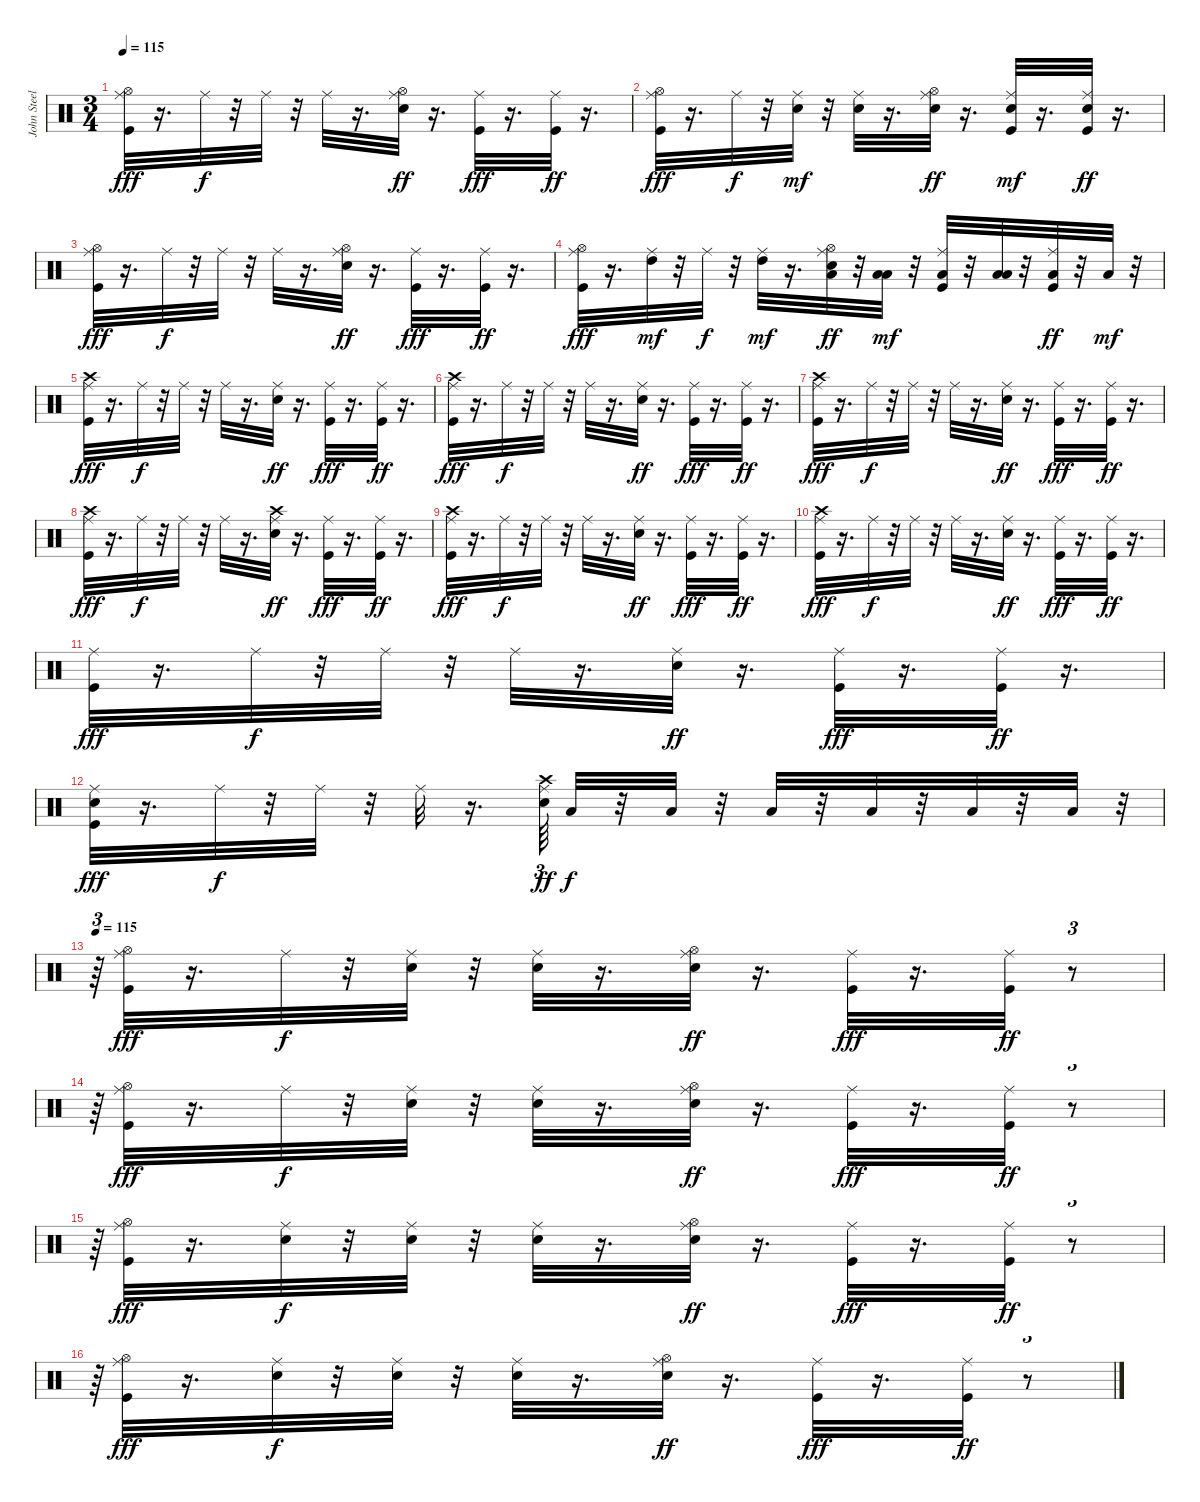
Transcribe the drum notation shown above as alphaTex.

\track ("John Steel" "John Steel") {instrument percussion}
\staff {score}
\articulation defaults
\ts (3 4)
\tempo 115
\clef neutral
\ks c
("Kick (hit)" "Hi-Hat (open)" "Ride (middle)").32{dy fff} r.16{d} "Ride (middle)".32{dy f} r.32 "Ride (middle)".32 r.32 "Ride (middle)".32 r.16{d} ("Snare (hit) 2" "Hi-Hat (open)" "Ride (middle)").32{dy ff} r.16{d} ("Kick (hit)" "Ride (middle)").32{dy fff} r.16{d} ("Kick (hit)" "Ride (middle)").32{dy ff} r.16{d} |
("Kick (hit)" "Hi-Hat (open)" "Ride (middle)").32{dy fff} r.16{d} "Ride (middle)".32{dy f} r.32 ("Snare (hit) 2" "Ride (middle)").32{dy mf} r.32 ("Snare (hit) 2" "Ride (middle)").32 r.16{d} ("Snare (hit) 2" "Hi-Hat (open)" "Ride (middle)").32{dy ff} r.16{d} ("Kick (hit)" "Snare (hit) 2" "Ride (middle)").32{dy mf} r.16{d} ("Kick (hit)" "Snare (hit) 2" "Ride (middle)").32{dy ff} r.16{d} |
("Kick (hit)" "Hi-Hat (open)" "Ride (middle)").32{dy fff} r.16{d} "Ride (middle)".32{dy f} r.32 "Ride (middle)".32 r.32 "Ride (middle)".32 r.16{d} ("Snare (hit) 2" "Hi-Hat (open)" "Ride (middle)").32{dy ff} r.16{d} ("Kick (hit)" "Ride (middle)").32{dy fff} r.16{d} ("Kick (hit)" "Ride (middle)").32{dy ff} r.16{d} |
("Kick (hit)" "Hi-Hat (open)" "Ride (middle)").32{dy fff} r.16{d} ("High Tom (hit)" "Ride (middle)").32{dy mf} r.32 "Ride (middle)".32{dy f} r.32 ("High Tom (hit)" "Ride (middle)").32{dy mf} r.16{d} ("Snare (hit) 2" "Low Tom (hit)" "Hi-Hat (open)" "Ride (middle)").32{dy ff} r.32 ("Low Floor Tom (hit)" "Low Tom (hit)").32{dy mf} r.32 ("Kick (hit)" "Low Tom (hit)" "Ride (middle)").32 r.32 ("Low Floor Tom (hit)" "Low Tom (hit)").32 r.32 ("Kick (hit)" "Low Floor Tom (hit)" "Ride (middle)").32{dy ff} r.32 "Low Floor Tom (hit)".32{dy mf} r.32 |
("Kick (hit)" "Crash high (hit)" "Ride (middle)").32{dy fff} r.16{d} "Ride (middle)".32{dy f} r.32 "Ride (middle)".32 r.32 "Ride (middle)".32 r.16{d} ("Snare (hit) 2" "Ride (middle)").32{dy ff} r.16{d} ("Kick (hit)" "Ride (middle)").32{dy fff} r.16{d} ("Kick (hit)" "Ride (middle)").32{dy ff} r.16{d} |
("Kick (hit)" "Crash high (hit)" "Ride (middle)").32{dy fff} r.16{d} "Ride (middle)".32{dy f} r.32 "Ride (middle)".32 r.32 "Ride (middle)".32 r.16{d} ("Snare (hit) 2" "Ride (middle)").32{dy ff} r.16{d} ("Kick (hit)" "Ride (middle)").32{dy fff} r.16{d} ("Kick (hit)" "Ride (middle)").32{dy ff} r.16{d} |
("Kick (hit)" "Crash high (hit)" "Ride (middle)").32{dy fff} r.16{d} "Ride (middle)".32{dy f} r.32 "Ride (middle)".32 r.32 "Ride (middle)".32 r.16{d} ("Snare (hit) 2" "Ride (middle)").32{dy ff} r.16{d} ("Kick (hit)" "Ride (middle)").32{dy fff} r.16{d} ("Kick (hit)" "Ride (middle)").32{dy ff} r.16{d} |
("Kick (hit)" "Crash high (hit)" "Ride (middle)").32{dy fff} r.16{d} "Ride (middle)".32{dy f} r.32 "Ride (middle)".32 r.32 "Ride (middle)".32 r.16{d} ("Snare (hit) 2" "Crash high (hit)" "Ride (middle)").32{dy ff} r.16{d} ("Kick (hit)" "Ride (middle)").32{dy fff} r.16{d} ("Kick (hit)" "Ride (middle)").32{dy ff} r.16{d} |
("Kick (hit)" "Crash high (hit)" "Ride (middle)").32{dy fff} r.16{d} "Ride (middle)".32{dy f} r.32 "Ride (middle)".32 r.32 "Ride (middle)".32 r.16{d} ("Snare (hit) 2" "Ride (middle)").32{dy ff} r.16{d} ("Kick (hit)" "Ride (middle)").32{dy fff} r.16{d} ("Kick (hit)" "Ride (middle)").32{dy ff} r.16{d} |
("Kick (hit)" "Crash high (hit)" "Ride (middle)").32{dy fff} r.16{d} "Ride (middle)".32{dy f} r.32 "Ride (middle)".32 r.32 "Ride (middle)".32 r.16{d} ("Snare (hit) 2" "Ride (middle)").32{dy ff} r.16{d} ("Kick (hit)" "Ride (middle)").32{dy fff} r.16{d} ("Kick (hit)" "Ride (middle)").32{dy ff} r.16{d} |
("Kick (hit)" "Ride (middle)").32{dy fff} r.16{d} "Ride (middle)".32{dy f} r.32 "Ride (middle)".32 r.32 "Ride (middle)".32 r.16{d} ("Snare (hit) 2" "Ride (middle)").32{dy ff} r.16{d} ("Kick (hit)" "Ride (middle)").32{dy fff} r.16{d} ("Kick (hit)" "Ride (middle)").32{dy ff} r.16{d} |
("Kick (hit)" "Snare (hit) 2" "Ride (middle)").32{dy fff} r.16{d} "Ride (middle)".32{dy f} r.32 "Ride (middle)".32 r.32 "Ride (middle)".32 r.16{d} ("Snare (hit) 2" "Crash high (hit)" "Ride (middle)").64{tu (3 2) dy ff} "Low Floor Tom (hit)".32{dy f} r.32 "Low Floor Tom (hit)".32 r.32 "Low Floor Tom (hit)".32 r.32 "Low Floor Tom (hit)".32 r.32 "Low Floor Tom (hit)".32 r.32 "Low Floor Tom (hit)".32 r.32{tu (3 2)} |
\tempo 115
r.64{tu (3 2)} ("Kick (hit)" "Hi-Hat (open)" "Ride (middle)").32{dy fff} r.16{d} "Ride (middle)".32{dy f} r.32 ("Snare (hit) 2" "Ride (middle)").32 r.32 ("Snare (hit) 2" "Ride (middle)").32 r.16{d} ("Snare (hit) 2" "Hi-Hat (open)" "Ride (middle)").32{dy ff} r.16{d} ("Kick (hit)" "Ride (middle)").32{dy fff} r.16{d} ("Kick (hit)" "Ride (middle)").32{dy ff} r.8{tu (3 2)} |
r.64{tu (3 2)} ("Kick (hit)" "Hi-Hat (open)" "Ride (middle)").32{dy fff} r.16{d} "Ride (middle)".32{dy f} r.32 ("Snare (hit) 2" "Ride (middle)").32 r.32 ("Snare (hit) 2" "Ride (middle)").32 r.16{d} ("Snare (hit) 2" "Hi-Hat (open)" "Ride (middle)").32{dy ff} r.16{d} ("Kick (hit)" "Ride (middle)").32{dy fff} r.16{d} ("Kick (hit)" "Ride (middle)").32{dy ff} r.8{tu (3 2)} |
r.64{tu (3 2)} ("Kick (hit)" "Hi-Hat (open)" "Ride (middle)").32{dy fff} r.16{d} ("Snare (hit) 2" "Ride (middle)").32{dy f} r.32 ("Snare (hit) 2" "Ride (middle)").32 r.32 ("Snare (hit) 2" "Ride (middle)").32 r.16{d} ("Snare (hit) 2" "Hi-Hat (open)" "Ride (middle)").32{dy ff} r.16{d} ("Kick (hit)" "Ride (middle)").32{dy fff} r.16{d} ("Kick (hit)" "Ride (middle)").32{dy ff} r.8{tu (3 2)} |
r.64{tu (3 2)} ("Kick (hit)" "Hi-Hat (open)" "Ride (middle)").32{dy fff} r.16{d} ("Snare (hit) 2" "Ride (middle)").32{dy f} r.32 ("Snare (hit) 2" "Ride (middle)").32 r.32 ("Snare (hit) 2" "Ride (middle)").32 r.16{d} ("Snare (hit) 2" "Hi-Hat (open)" "Ride (middle)").32{dy ff} r.16{d} ("Kick (hit)" "Ride (middle)").32{dy fff} r.16{d} ("Kick (hit)" "Ride (middle)").32{dy ff} r.8{tu (3 2)}
